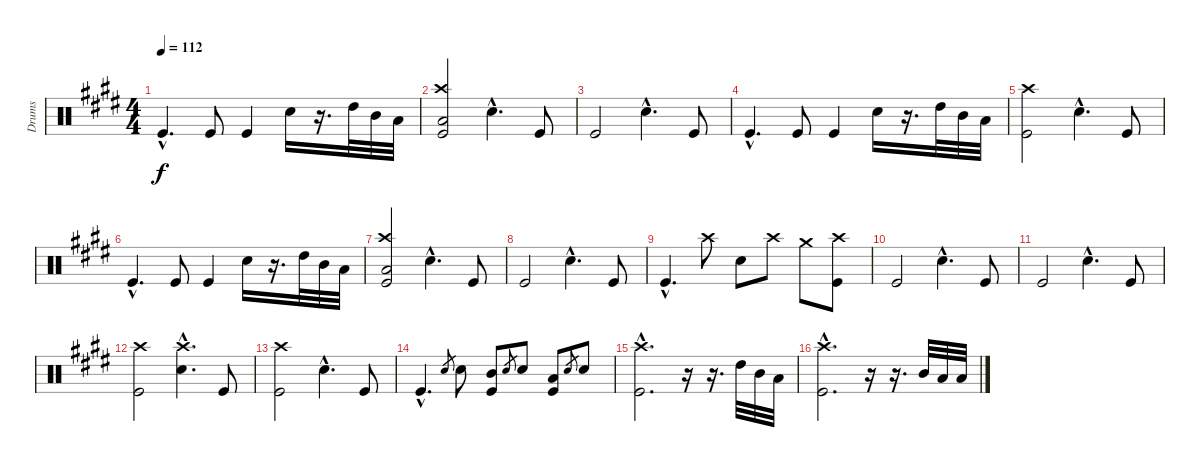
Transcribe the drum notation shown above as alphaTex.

\track ("Drums" "Drums") {instrument percussion}
\staff {score}
\articulation defaults
\ts (4 4)
\tempo 112
\clef neutral
\ks e "Kick (hit)"{hac}.4{d dy f} "Kick (hit)".8 "Kick (hit)".4 "Snare (hit) 2".16
r.16{d} "High Tom (hit)".32 "Mid Tom (hit)".32 "Low Tom (hit)".32 |
("Crash high (hit)" "Low Floor Tom (hit)" "Kick (hit)").2 "Snare (hit) 2"{hac}.4{d} "Kick (hit)".8 |
"Kick (hit)".2 "Snare (hit) 2"{hac}.4{d} "Kick (hit)".8 |
"Kick (hit)"{hac}.4{d} "Kick (hit)".8 "Kick (hit)".4 "Snare (hit) 2".16 r.16{d} "High Tom (hit)".32 "Mid Tom (hit)".32 "Low Tom (hit)".32 |
("Crash high (hit)" "Kick (hit)").2 "Snare (hit) 2"{hac}.4{d} "Kick (hit)".8 |
"Kick (hit)"{hac}.4{d} "Kick (hit)".8 "Kick (hit)".4 "Snare (hit) 2".16 r.16{d} "High Tom (hit)".32 "Mid Tom (hit)".32 "Low Tom (hit)".32 |
("Crash high (hit)" "Low Floor Tom (hit)" "Kick (hit)").2 "Snare (hit) 2"{hac}.4{d} "Kick (hit)".8 |
"Kick (hit)".2 "Snare (hit) 2"{hac}.4{d} "Kick (hit)".8 |
"Kick (hit)"{hac}.4{d} "Crash high (hit)".8 "Snare (hit) 2".8 "Crash high (hit)".8 "Crash medium (hit)".8 ("Crash high (hit)" "Kick (hit)").8 |
"Kick (hit)".2 "Snare (hit) 2"{hac}.4{d} "Kick (hit)".8 |
"Kick (hit)".2 "Snare (hit) 2"{hac}.4{d} "Kick (hit)".8 |
("Crash high (hit)" "Kick (hit)").2 ("Crash high (hit)"{hac} "Snare (hit) 2"{hac}).4{d} "Kick (hit)".8 |
("Crash high (hit)" "Kick (hit)").2 "Snare (hit) 2"{hac}.4{d} "Kick (hit)".8 |
"Kick (hit)"{hac}.4{d} "Snare (hit) 2".8{gr} "Snare (hit) 2".8 ("Mid Tom (hit)" "Kick (hit)").8 "Snare (hit) 2".8{gr} "Snare (hit) 2".8 ("Low Tom (hit)" "Kick (hit)").8 "Snare (hit) 2".8{gr} "Snare (hit) 2".8 |
("Crash high (hit)"{hac} "Kick (hit)"{hac}).2{d} r.16 r.16{d} "High Tom (hit)".32 "Mid Tom (hit)".32 "Low Tom (hit)".32 |
("Crash high (hit)"{hac} "Kick (hit)"{hac}).2{d} r.16 r.16{d} "Mid Tom (hit)".32 "Low Tom (hit)".32 "Low Floor Tom (hit)".32
